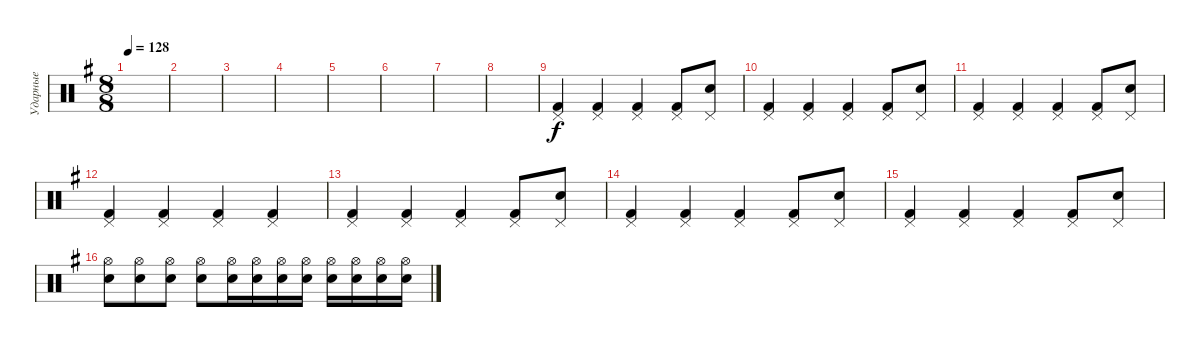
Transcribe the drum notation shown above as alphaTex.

\track ("Ударные" "Ударные") {instrument percussion}
\staff {score}
\articulation defaults
\ts (8 8)
\tempo 128
\clef neutral
\ks g
|
|
|
|
|
|
|
|
("Kick (hit) 2" "Pedal Hi-Hat (hit)").4 ("Kick (hit) 2" "Pedal Hi-Hat (hit)").4 ("Kick (hit) 2" "Pedal Hi-Hat (hit)").4 ("Kick (hit) 2" "Pedal Hi-Hat (hit)").8 ("Electric Snare (hit)" "Pedal Hi-Hat (hit)").8 |
("Kick (hit) 2" "Pedal Hi-Hat (hit)").4 ("Kick (hit) 2" "Pedal Hi-Hat (hit)").4 ("Kick (hit) 2" "Pedal Hi-Hat (hit)").4 ("Kick (hit) 2" "Pedal Hi-Hat (hit)").8 ("Electric Snare (hit)" "Pedal Hi-Hat (hit)").8 |
("Pedal Hi-Hat (hit)" "Kick (hit) 2").4 ("Pedal Hi-Hat (hit)" "Kick (hit) 2").4 ("Pedal Hi-Hat (hit)" "Kick (hit) 2").4 ("Pedal Hi-Hat (hit)" "Kick (hit) 2").8 ("Electric Snare (hit)" "Pedal Hi-Hat (hit)").8 |
("Pedal Hi-Hat (hit)" "Kick (hit) 2").4 ("Pedal Hi-Hat (hit)" "Kick (hit) 2").4 ("Pedal Hi-Hat (hit)" "Kick (hit) 2").4 ("Pedal Hi-Hat (hit)" "Kick (hit) 2").4 |
("Pedal Hi-Hat (hit)" "Kick (hit) 2").4 ("Pedal Hi-Hat (hit)" "Kick (hit) 2").4 ("Pedal Hi-Hat (hit)" "Kick (hit) 2").4 ("Pedal Hi-Hat (hit)" "Kick (hit) 2").8 ("Electric Snare (hit)" "Pedal Hi-Hat (hit)").8 |
("Pedal Hi-Hat (hit)" "Kick (hit) 2").4 ("Pedal Hi-Hat (hit)" "Kick (hit) 2").4 ("Pedal Hi-Hat (hit)" "Kick (hit) 2").4 ("Pedal Hi-Hat (hit)" "Kick (hit) 2").8 ("Electric Snare (hit)" "Pedal Hi-Hat (hit)").8 |
("Pedal Hi-Hat (hit)" "Kick (hit) 2").4 ("Pedal Hi-Hat (hit)" "Kick (hit) 2").4 ("Pedal Hi-Hat (hit)" "Kick (hit) 2").4 ("Pedal Hi-Hat (hit)" "Kick (hit) 2").8 ("Electric Snare (hit)" "Pedal Hi-Hat (hit)").8 |
("Electric Snare (hit)" "Hi-Hat (open)").8 ("Electric Snare (hit)" "Hi-Hat (open)").8 ("Electric Snare (hit)" "Hi-Hat (open)").8 ("Electric Snare (hit)" "Hi-Hat (open)").8 ("Electric Snare (hit)" "Hi-Hat (open)").16 ("Electric Snare (hit)" "Hi-Hat (open)").16 ("Electric Snare (hit)" "Hi-Hat (open)").16 ("Electric Snare (hit)" "Hi-Hat (open)").16 ("Electric Snare (hit)" "Hi-Hat (open)").16 ("Electric Snare (hit)" "Hi-Hat (open)").16 ("Electric Snare (hit)" "Hi-Hat (open)").16 ("Electric Snare (hit)" "Hi-Hat (open)").16
